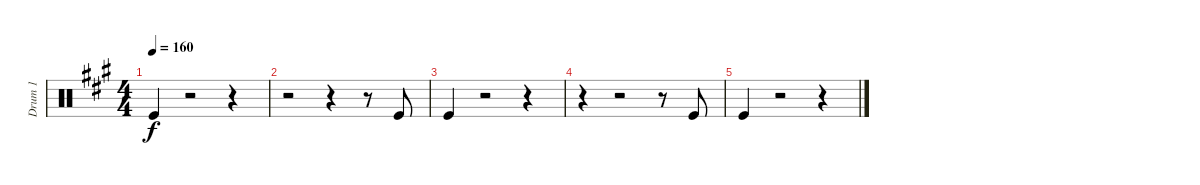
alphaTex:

\track ("Drum 1" "Drum 1") {instrument percussion}
\staff {score}
\articulation defaults
\ts (4 4)
\tempo 160
\clef neutral
\ks a "Kick (hit)".4{dy f}
r.2 r.4 |
r.2 r.4 r.8 "Kick (hit)".8 |
"Kick (hit)".4 r.2 r.4 |
r.4 r.2 r.8 "Kick (hit)".8 |
"Kick (hit)".4 r.2 r.4
